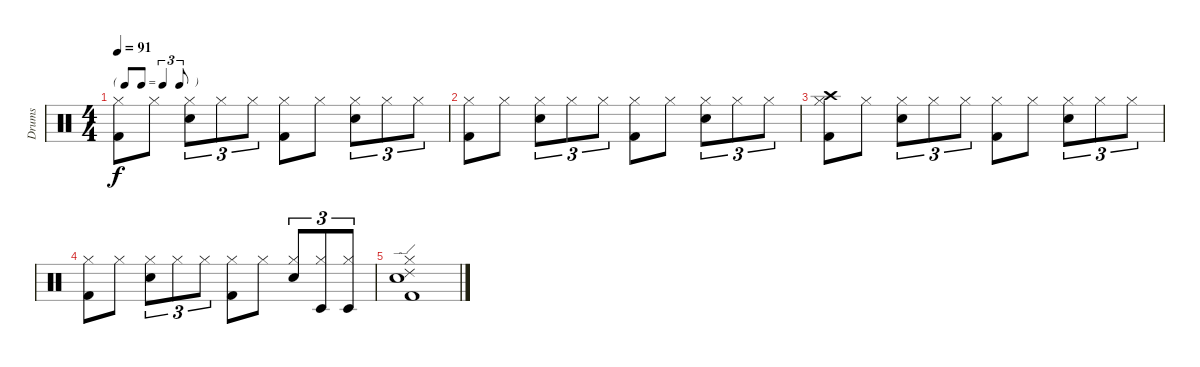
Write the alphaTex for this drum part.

\track ("Drums" "Drums") {instrument percussion}
\staff {score}
\articulation defaults
\ts (4 4)
\tf triplet8th
\tempo 91
\clef neutral
\ks c
("Hi-Hat (closed)" "Kick (hit) 2").8{dy f} "Hi-Hat (closed)".8 ("Hi-Hat (closed)" "Snare (hit) 2").8{tu (3 2)} "Hi-Hat (closed)".8{tu (3 2)} "Hi-Hat (closed)".8{tu (3 2)} ("Hi-Hat (closed)" "Kick (hit) 2").8 "Hi-Hat (closed)".8 ("Hi-Hat (closed)" "Snare (hit) 2").8{tu (3 2)} "Hi-Hat (closed)".8{tu (3 2)} "Hi-Hat (closed)".8{tu (3 2)} |
("Hi-Hat (closed)" "Kick (hit) 2").8 "Hi-Hat (closed)".8 ("Hi-Hat (closed)" "Snare (hit) 2").8{tu (3 2)} "Hi-Hat (closed)".8{tu (3 2)} "Hi-Hat (closed)".8{tu (3 2)} ("Hi-Hat (closed)" "Kick (hit) 2").8 "Hi-Hat (closed)".8 ("Hi-Hat (closed)" "Snare (hit) 2").8{tu (3 2)} "Hi-Hat (closed)".8{tu (3 2)} "Hi-Hat (closed)".8{tu (3 2)} |
("Crash high (hit)" "Hi-Hat (closed)" "Kick (hit) 2").8 "Hi-Hat (closed)".8 ("Hi-Hat (closed)" "Snare (hit) 2").8{tu (3 2)} "Hi-Hat (closed)".8{tu (3 2)} "Hi-Hat (closed)".8{tu (3 2)} ("Hi-Hat (closed)" "Kick (hit) 2").8 "Hi-Hat (closed)".8 ("Hi-Hat (closed)" "Snare (hit) 2").8{tu (3 2)} "Hi-Hat (closed)".8{tu (3 2)} "Hi-Hat (closed)".8{tu (3 2)} |
("Hi-Hat (closed)" "Kick (hit) 2").8 "Hi-Hat (closed)".8 ("Hi-Hat (closed)" "Snare (hit) 2").8{tu (3 2)} "Hi-Hat (closed)".8{tu (3 2)} "Hi-Hat (closed)".8{tu (3 2)} ("Hi-Hat (closed)" "Kick (hit) 2").8 "Hi-Hat (closed)".8 ("Hi-Hat (closed)" "Snare (hit) 2").8{tu (3 2)} ("Hi-Hat (closed)" "Timbale low (hit)").8{tu (3 2)} ("Hi-Hat (closed)" "Timbale low (hit)").8{tu (3 2)} |
("Hi-Hat (closed)" "Snare (hit) 2" "Ride (edge) 2" "Kick (hit) 2").1
